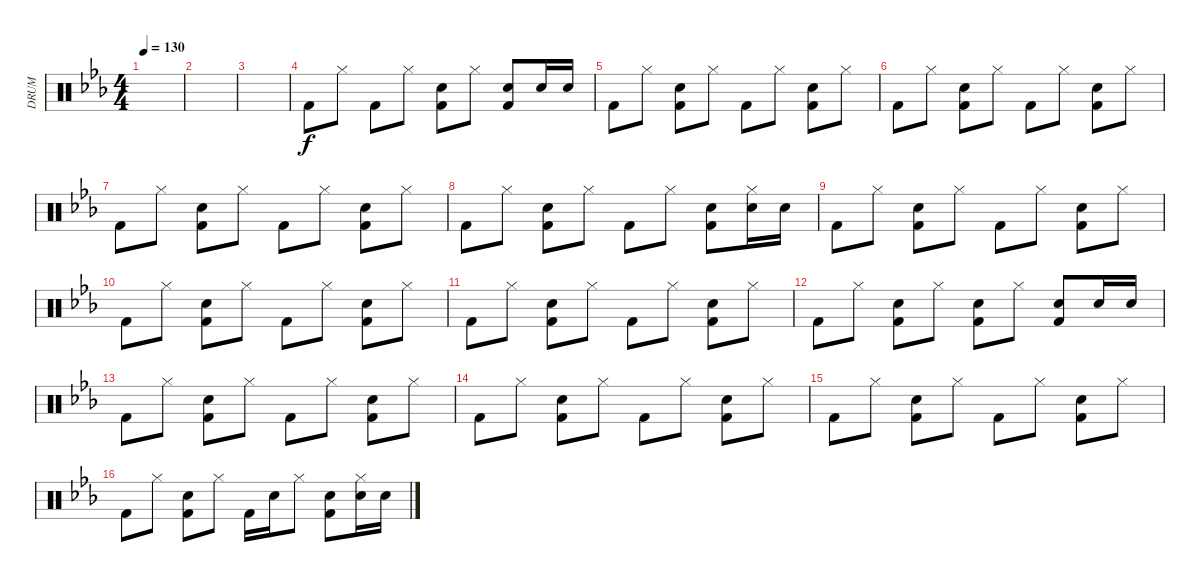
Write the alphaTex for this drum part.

\track ("DRUM" "DRUM") {instrument percussion}
\staff {score}
\articulation defaults
\ts (4 4)
\tempo 130
\clef neutral
\ks eb
|
|
|
"Kick (hit) 2".8 "Hi-Hat (closed)".8 "Kick (hit) 2".8 "Hi-Hat (closed)".8 ("Hand Clap (hit)" "Kick (hit) 2").8 "Hi-Hat (closed)".8 ("Hand Clap (hit)" "Kick (hit) 2").8 "Hand Clap (hit)".16 "Hand Clap (hit)".16 |
"Kick (hit) 2".8 "Hi-Hat (closed)".8 ("Hand Clap (hit)" "Kick (hit) 2").8 "Hi-Hat (closed)".8 "Kick (hit) 2".8 "Hi-Hat (closed)".8 ("Hand Clap (hit)" "Kick (hit) 2").8 "Hi-Hat (closed)".8 |
"Kick (hit) 2".8 "Hi-Hat (closed)".8 ("Hand Clap (hit)" "Kick (hit) 2").8 "Hi-Hat (closed)".8 "Kick (hit) 2".8 "Hi-Hat (closed)".8 ("Hand Clap (hit)" "Kick (hit) 2").8 "Hi-Hat (closed)".8 |
"Kick (hit) 2".8 "Hi-Hat (closed)".8 ("Hand Clap (hit)" "Kick (hit) 2").8 "Hi-Hat (closed)".8 "Kick (hit) 2".8 "Hi-Hat (closed)".8 ("Hand Clap (hit)" "Kick (hit) 2").8 "Hi-Hat (closed)".8 |
"Kick (hit) 2".8 "Hi-Hat (closed)".8 ("Hand Clap (hit)" "Kick (hit) 2").8 "Hi-Hat (closed)".8 "Kick (hit) 2".8 "Hi-Hat (closed)".8 ("Hand Clap (hit)" "Kick (hit) 2").8 ("Hi-Hat (closed)" "Hand Clap (hit)").16 "Hand Clap (hit)".16 |
"Kick (hit) 2".8 "Hi-Hat (closed)".8 ("Hand Clap (hit)" "Kick (hit) 2").8 "Hi-Hat (closed)".8 "Kick (hit) 2".8 "Hi-Hat (closed)".8 ("Hand Clap (hit)" "Kick (hit) 2").8 "Hi-Hat (closed)".8 |
"Kick (hit) 2".8 "Hi-Hat (closed)".8 ("Hand Clap (hit)" "Kick (hit) 2").8 "Hi-Hat (closed)".8 "Kick (hit) 2".8 "Hi-Hat (closed)".8 ("Hand Clap (hit)" "Kick (hit) 2").8 "Hi-Hat (closed)".8 |
"Kick (hit) 2".8 "Hi-Hat (closed)".8 ("Hand Clap (hit)" "Kick (hit) 2").8 "Hi-Hat (closed)".8 "Kick (hit) 2".8 "Hi-Hat (closed)".8 ("Hand Clap (hit)" "Kick (hit) 2").8 "Hi-Hat (closed)".8 |
"Kick (hit) 2".8 "Hi-Hat (closed)".8 ("Hand Clap (hit)" "Kick (hit) 2").8 "Hi-Hat (closed)".8 ("Hand Clap (hit)" "Kick (hit) 2").8 "Hi-Hat (closed)".8 ("Hand Clap (hit)" "Kick (hit) 2").8 "Hand Clap (hit)".16 "Hand Clap (hit)".16 |
"Kick (hit) 2".8 "Hi-Hat (closed)".8 ("Hand Clap (hit)" "Kick (hit) 2").8 "Hi-Hat (closed)".8 "Kick (hit) 2".8 "Hi-Hat (closed)".8 ("Hand Clap (hit)" "Kick (hit) 2").8 "Hi-Hat (closed)".8 |
"Kick (hit) 2".8 "Hi-Hat (closed)".8 ("Hand Clap (hit)" "Kick (hit) 2").8 "Hi-Hat (closed)".8 "Kick (hit) 2".8 "Hi-Hat (closed)".8 ("Hand Clap (hit)" "Kick (hit) 2").8 "Hi-Hat (closed)".8 |
"Kick (hit) 2".8 "Hi-Hat (closed)".8 ("Hand Clap (hit)" "Kick (hit) 2").8 "Hi-Hat (closed)".8 "Kick (hit) 2".8 "Hi-Hat (closed)".8 ("Hand Clap (hit)" "Kick (hit) 2").8 "Hi-Hat (closed)".8 |
"Kick (hit) 2".8 "Hi-Hat (closed)".8 ("Hand Clap (hit)" "Kick (hit) 2").8 "Hi-Hat (closed)".8 "Kick (hit) 2".16 "Hand Clap (hit)".16 "Hi-Hat (closed)".8 ("Hand Clap (hit)" "Kick (hit) 2").8 ("Hi-Hat (closed)" "Hand Clap (hit)").16 "Hand Clap (hit)".16
